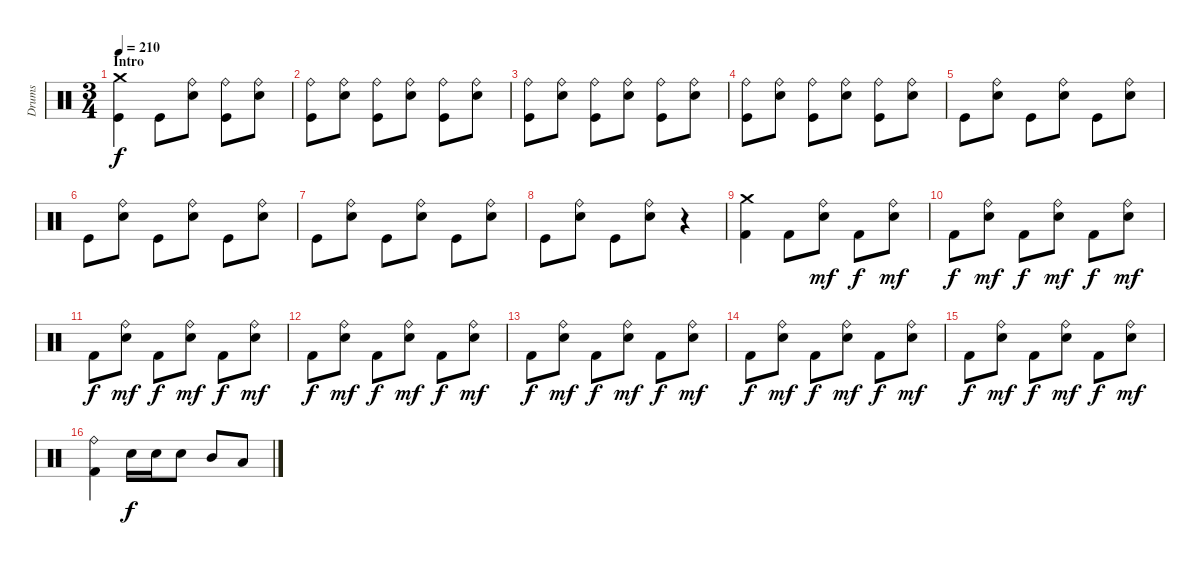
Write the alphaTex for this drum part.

\track ("Drums" "Drums") {instrument percussion}
\staff {score}
\articulation defaults
\ts (3 4)
\section ("" "Intro")
\tempo 210
\clef neutral
\ks c
("Crash medium (hit)" "Kick (hit)").4{dy f volume 9} "Kick (hit)".8 ("Ride (bell)" "Electric Snare (hit)").8 ("Ride (bell)" "Kick (hit)").8 ("Ride (bell)" "Electric Snare (hit)").8 |
("Ride (bell)" "Kick (hit)").8 ("Ride (bell)" "Electric Snare (hit)").8 ("Ride (bell)" "Kick (hit)").8 ("Ride (bell)" "Electric Snare (hit)").8 ("Ride (bell)" "Kick (hit)").8 ("Ride (bell)" "Electric Snare (hit)").8 |
("Ride (bell)" "Kick (hit)").8 ("Ride (bell)" "Electric Snare (hit)").8 ("Ride (bell)" "Kick (hit)").8 ("Ride (bell)" "Electric Snare (hit)").8 ("Ride (bell)" "Kick (hit)").8 ("Ride (bell)" "Electric Snare (hit)").8 |
("Ride (bell)" "Kick (hit)").8 ("Ride (bell)" "Electric Snare (hit)").8 ("Ride (bell)" "Kick (hit)").8 ("Ride (bell)" "Electric Snare (hit)").8 ("Ride (bell)" "Kick (hit)").8 ("Ride (bell)" "Electric Snare (hit)").8 |
"Kick (hit)".8 ("Ride (bell)" "Electric Snare (hit)").8 "Kick (hit)".8 ("Ride (bell)" "Electric Snare (hit)").8 "Kick (hit)".8 ("Ride (bell)" "Electric Snare (hit)").8 |
"Kick (hit)".8 ("Ride (bell)" "Electric Snare (hit)").8 "Kick (hit)".8 ("Ride (bell)" "Electric Snare (hit)").8 "Kick (hit)".8 ("Ride (bell)" "Electric Snare (hit)").8 |
"Kick (hit)".8 ("Ride (bell)" "Electric Snare (hit)").8 "Kick (hit)".8 ("Ride (bell)" "Electric Snare (hit)").8 "Kick (hit)".8 ("Ride (bell)" "Electric Snare (hit)").8 |
"Kick (hit)".8 ("Ride (bell)" "Electric Snare (hit)").8 "Kick (hit)".8 ("Ride (bell)" "Electric Snare (hit)").8 r.4 |
("Crash medium (hit)" "Kick (hit) 2").4{volume 15} "Kick (hit) 2".8 ("Ride (bell)" "Electric Snare (hit)").8{dy mf} "Kick (hit) 2".8{dy f} ("Ride (bell)" "Electric Snare (hit)").8{dy mf} |
"Kick (hit) 2".8{dy f} ("Ride (bell)" "Electric Snare (hit)").8{dy mf} "Kick (hit) 2".8{dy f} ("Ride (bell)" "Electric Snare (hit)").8{dy mf} "Kick (hit) 2".8{dy f} ("Ride (bell)" "Electric Snare (hit)").8{dy mf} |
"Kick (hit) 2".8{dy f} ("Ride (bell)" "Electric Snare (hit)").8{dy mf} "Kick (hit) 2".8{dy f} ("Ride (bell)" "Electric Snare (hit)").8{dy mf} "Kick (hit) 2".8{dy f} ("Ride (bell)" "Electric Snare (hit)").8{dy mf} |
"Kick (hit) 2".8{dy f} ("Ride (bell)" "Electric Snare (hit)").8{dy mf} "Kick (hit) 2".8{dy f} ("Ride (bell)" "Electric Snare (hit)").8{dy mf} "Kick (hit) 2".8{dy f} ("Ride (bell)" "Electric Snare (hit)").8{dy mf} |
"Kick (hit) 2".8{dy f} ("Ride (bell)" "Electric Snare (hit)").8{dy mf} "Kick (hit) 2".8{dy f} ("Ride (bell)" "Electric Snare (hit)").8{dy mf} "Kick (hit) 2".8{dy f} ("Ride (bell)" "Electric Snare (hit)").8{dy mf} |
"Kick (hit) 2".8{dy f} ("Ride (bell)" "Electric Snare (hit)").8{dy mf} "Kick (hit) 2".8{dy f} ("Ride (bell)" "Electric Snare (hit)").8{dy mf} "Kick (hit) 2".8{dy f} ("Ride (bell)" "Electric Snare (hit)").8{dy mf} |
"Kick (hit) 2".8{dy f} ("Ride (bell)" "Electric Snare (hit)").8{dy mf} "Kick (hit) 2".8{dy f} ("Ride (bell)" "Electric Snare (hit)").8{dy mf} "Kick (hit) 2".8{dy f} ("Ride (bell)" "Electric Snare (hit)").8{dy mf} |
("Ride (bell)" "Kick (hit) 2").4 "Electric Snare (hit)".16{dy f} "Electric Snare (hit)".16 "Electric Snare (hit)".8 "Mid Tom (hit)".8 "Low Tom (hit)".8
